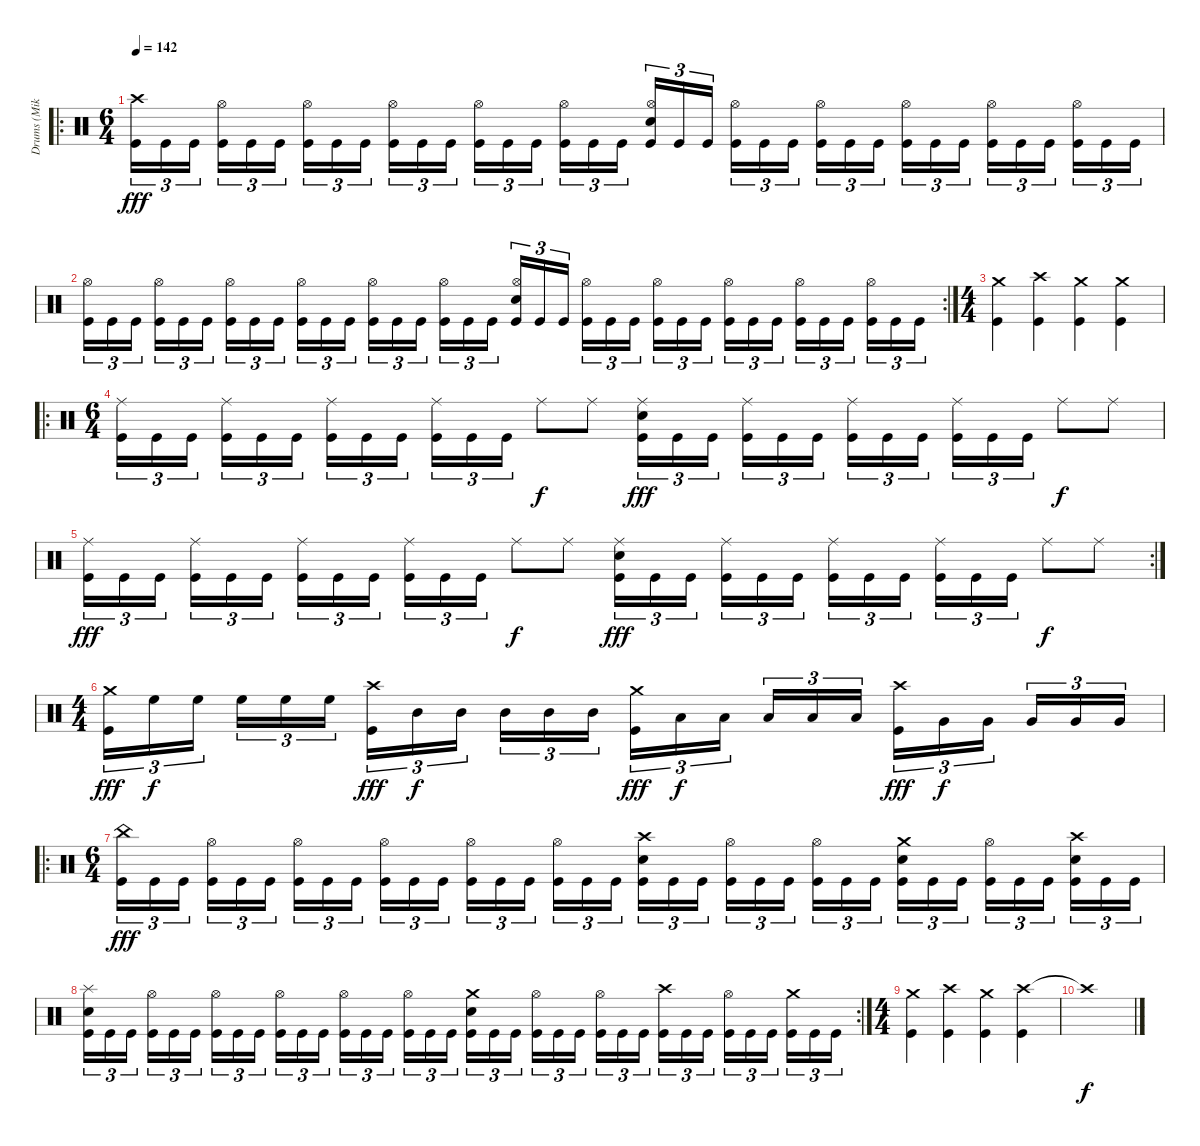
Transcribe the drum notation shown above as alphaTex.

\track ("Drums (Mike)" "Drums (Mik") {instrument percussion}
\staff {score}
\articulation defaults
\ro
\ts (6 4)
\tempo 142
\clef neutral
\ks c
("Crash high (hit)" "Kick (hit)").16{tu (3 2) dy fff} "Kick (hit)".16{tu (3 2)} "Kick (hit)".16{tu (3 2)} ("Hi-Hat (open)" "Kick (hit)").16{tu (3 2)} "Kick (hit)".16{tu (3 2)} "Kick (hit)".16{tu (3 2)} ("Hi-Hat (open)" "Kick (hit)").16{tu (3 2)} "Kick (hit)".16{tu (3 2)} "Kick (hit)".16{tu (3 2)} ("Hi-Hat (open)" "Kick (hit)").16{tu (3 2)} "Kick (hit)".16{tu (3 2)} "Kick (hit)".16{tu (3 2)} ("Hi-Hat (open)" "Kick (hit)").16{tu (3 2)} "Kick (hit)".16{tu (3 2)} "Kick (hit)".16{tu (3 2)} ("Hi-Hat (open)" "Kick (hit)").16{tu (3 2)} "Kick (hit)".16{tu (3 2)} "Kick (hit)".16{tu (3 2)} ("Hi-Hat (open)" "Electric Snare (hit)" "Kick (hit)").16{tu (3 2)} "Kick (hit)".16{tu (3 2)} "Kick (hit)".16{tu (3 2)} ("Hi-Hat (open)" "Kick (hit)").16{tu (3 2)} "Kick (hit)".16{tu (3 2)} "Kick (hit)".16{tu (3 2)} ("Hi-Hat (open)" "Kick (hit)").16{tu (3 2)} "Kick (hit)".16{tu (3 2)} "Kick (hit)".16{tu (3 2)} ("Hi-Hat (open)" "Kick (hit)").16{tu (3 2)} "Kick (hit)".16{tu (3 2)} "Kick (hit)".16{tu (3 2)} ("Hi-Hat (open)" "Kick (hit)").16{tu (3 2)} "Kick (hit)".16{tu (3 2)} "Kick (hit)".16{tu (3 2)} ("Hi-Hat (open)" "Kick (hit)").16{tu (3 2)} "Kick (hit)".16{tu (3 2)} "Kick (hit)".16{tu (3 2)} |
\rc 2
("Hi-Hat (open)" "Kick (hit)").16{tu (3 2)} "Kick (hit)".16{tu (3 2)} "Kick (hit)".16{tu (3 2)} ("Hi-Hat (open)" "Kick (hit)").16{tu (3 2)} "Kick (hit)".16{tu (3 2)} "Kick (hit)".16{tu (3 2)} ("Hi-Hat (open)" "Kick (hit)").16{tu (3 2)} "Kick (hit)".16{tu (3 2)} "Kick (hit)".16{tu (3 2)} ("Hi-Hat (open)" "Kick (hit)").16{tu (3 2)} "Kick (hit)".16{tu (3 2)} "Kick (hit)".16{tu (3 2)} ("Hi-Hat (open)" "Kick (hit)").16{tu (3 2)} "Kick (hit)".16{tu (3 2)} "Kick (hit)".16{tu (3 2)} ("Hi-Hat (open)" "Kick (hit)").16{tu (3 2)} "Kick (hit)".16{tu (3 2)} "Kick (hit)".16{tu (3 2)} ("Hi-Hat (open)" "Electric Snare (hit)" "Kick (hit)").16{tu (3 2)} "Kick (hit)".16{tu (3 2)} "Kick (hit)".16{tu (3 2)} ("Hi-Hat (open)" "Kick (hit)").16{tu (3 2)} "Kick (hit)".16{tu (3 2)} "Kick (hit)".16{tu (3 2)} ("Hi-Hat (open)" "Kick (hit)").16{tu (3 2)} "Kick (hit)".16{tu (3 2)} "Kick (hit)".16{tu (3 2)} ("Hi-Hat (open)" "Kick (hit)").16{tu (3 2)} "Kick (hit)".16{tu (3 2)} "Kick (hit)".16{tu (3 2)} ("Hi-Hat (open)" "Kick (hit)").16{tu (3 2)} "Kick (hit)".16{tu (3 2)} "Kick (hit)".16{tu (3 2)} ("Hi-Hat (open)" "Kick (hit)").16{tu (3 2)} "Kick (hit)".16{tu (3 2)} "Kick (hit)".16{tu (3 2)} |
\ts (4 4)
("Crash medium (hit)" "Kick (hit)").4 ("Crash high (hit)" "Kick (hit)").4 ("Crash medium (hit)" "Kick (hit)").4 ("Crash medium (hit)" "Kick (hit)").4 |
\ro
\ts (6 4)
("Ride (middle)" "Kick (hit)").16{tu (3 2)} "Kick (hit)".16{tu (3 2)} "Kick (hit)".16{tu (3 2)} ("Ride (middle)" "Kick (hit)").16{tu (3 2)} "Kick (hit)".16{tu (3 2)} "Kick (hit)".16{tu (3 2)} ("Ride (middle)" "Kick (hit)").16{tu (3 2)} "Kick (hit)".16{tu (3 2)} "Kick (hit)".16{tu (3 2)} ("Ride (middle)" "Kick (hit)").16{tu (3 2)} "Kick (hit)".16{tu (3 2)} "Kick (hit)".16{tu (3 2)} "Ride (middle)".8{dy f} "Ride (middle)".8 ("Ride (middle)" "Electric Snare (hit)" "Kick (hit)").16{tu (3 2) dy fff} "Kick (hit)".16{tu (3 2)} "Kick (hit)".16{tu (3 2)} ("Ride (middle)" "Kick (hit)").16{tu (3 2)} "Kick (hit)".16{tu (3 2)} "Kick (hit)".16{tu (3 2)} ("Ride (middle)" "Kick (hit)").16{tu (3 2)} "Kick (hit)".16{tu (3 2)} "Kick (hit)".16{tu (3 2)} ("Ride (middle)" "Kick (hit)").16{tu (3 2)} "Kick (hit)".16{tu (3 2)} "Kick (hit)".16{tu (3 2)} "Ride (middle)".8{dy f} "Ride (middle)".8 |
\rc 2
("Ride (middle)" "Kick (hit)").16{tu (3 2) dy fff} "Kick (hit)".16{tu (3 2)} "Kick (hit)".16{tu (3 2)} ("Ride (middle)" "Kick (hit)").16{tu (3 2)} "Kick (hit)".16{tu (3 2)} "Kick (hit)".16{tu (3 2)} ("Ride (middle)" "Kick (hit)").16{tu (3 2)} "Kick (hit)".16{tu (3 2)} "Kick (hit)".16{tu (3 2)} ("Ride (middle)" "Kick (hit)").16{tu (3 2)} "Kick (hit)".16{tu (3 2)} "Kick (hit)".16{tu (3 2)} "Ride (middle)".8{dy f} "Ride (middle)".8 ("Ride (middle)" "Electric Snare (hit)" "Kick (hit)").16{tu (3 2) dy fff} "Kick (hit)".16{tu (3 2)} "Kick (hit)".16{tu (3 2)} ("Ride (middle)" "Kick (hit)").16{tu (3 2)} "Kick (hit)".16{tu (3 2)} "Kick (hit)".16{tu (3 2)} ("Ride (middle)" "Kick (hit)").16{tu (3 2)} "Kick (hit)".16{tu (3 2)} "Kick (hit)".16{tu (3 2)} ("Ride (middle)" "Kick (hit)").16{tu (3 2)} "Kick (hit)".16{tu (3 2)} "Kick (hit)".16{tu (3 2)} "Ride (middle)".8{dy f} "Ride (middle)".8 |
\ts (4 4)
("Crash medium (hit)" "Kick (hit)").16{tu (3 2) dy fff} "High Floor Tom (hit)".16{tu (3 2) dy f} "High Floor Tom (hit)".16{tu (3 2)} "High Floor Tom (hit)".16{tu (3 2)} "High Floor Tom (hit)".16{tu (3 2)} "High Floor Tom (hit)".16{tu (3 2)} ("Crash high (hit)" "Kick (hit)").16{tu (3 2) dy fff} "Mid Tom (hit)".16{tu (3 2) dy f} "Mid Tom (hit)".16{tu (3 2)} "Mid Tom (hit)".16{tu (3 2)} "Mid Tom (hit)".16{tu (3 2)} "Mid Tom (hit)".16{tu (3 2)} ("Crash medium (hit)" "Kick (hit)").16{tu (3 2) dy fff} "Low Tom (hit)".16{tu (3 2) dy f} "Low Tom (hit)".16{tu (3 2)} "Low Tom (hit)".16{tu (3 2)} "Low Tom (hit)".16{tu (3 2)} "Low Tom (hit)".16{tu (3 2)} ("Crash high (hit)" "Kick (hit)").16{tu (3 2) dy fff} "Very Low Tom (hit)".16{tu (3 2) dy f} "Very Low Tom (hit)".16{tu (3 2)} "Very Low Tom (hit)".16{tu (3 2)} "Very Low Tom (hit)".16{tu (3 2)} "Very Low Tom (hit)".16{tu (3 2)} |
\ro
\ts (6 4)
("China (hit)" "Kick (hit)").16{tu (3 2) dy fff} "Kick (hit)".16{tu (3 2)} "Kick (hit)".16{tu (3 2)} ("Hi-Hat (open)" "Kick (hit)").16{tu (3 2)} "Kick (hit)".16{tu (3 2)} "Kick (hit)".16{tu (3 2)} ("Hi-Hat (open)" "Kick (hit)").16{tu (3 2)} "Kick (hit)".16{tu (3 2)} "Kick (hit)".16{tu (3 2)} ("Hi-Hat (open)" "Kick (hit)").16{tu (3 2)} "Kick (hit)".16{tu (3 2)} "Kick (hit)".16{tu (3 2)} ("Hi-Hat (open)" "Kick (hit)").16{tu (3 2)} "Kick (hit)".16{tu (3 2)} "Kick (hit)".16{tu (3 2)} ("Hi-Hat (open)" "Kick (hit)").16{tu (3 2)} "Kick (hit)".16{tu (3 2)} "Kick (hit)".16{tu (3 2)} ("Crash high (hit)" "Electric Snare (hit)" "Kick (hit)").16{tu (3 2)} "Kick (hit)".16{tu (3 2)} "Kick (hit)".16{tu (3 2)} ("Hi-Hat (open)" "Kick (hit)").16{tu (3 2)} "Kick (hit)".16{tu (3 2)} "Kick (hit)".16{tu (3 2)} ("Hi-Hat (open)" "Kick (hit)").16{tu (3 2)} "Kick (hit)".16{tu (3 2)} "Kick (hit)".16{tu (3 2)} ("Crash medium (hit)" "Electric Snare (hit)" "Kick (hit)").16{tu (3 2)} "Kick (hit)".16{tu (3 2)} "Kick (hit)".16{tu (3 2)} ("Hi-Hat (open)" "Kick (hit)").16{tu (3 2)} "Kick (hit)".16{tu (3 2)} "Kick (hit)".16{tu (3 2)} ("Crash high (hit)" "Electric Snare (hit)" "Kick (hit)").16{tu (3 2)} "Kick (hit)".16{tu (3 2)} "Kick (hit)".16{tu (3 2)} |
\rc 2
("Splash (hit)" "Electric Snare (hit)" "Kick (hit)").16{tu (3 2)} "Kick (hit)".16{tu (3 2)} "Kick (hit)".16{tu (3 2)} ("Hi-Hat (open)" "Kick (hit)").16{tu (3 2)} "Kick (hit)".16{tu (3 2)} "Kick (hit)".16{tu (3 2)} ("Hi-Hat (open)" "Kick (hit)").16{tu (3 2)} "Kick (hit)".16{tu (3 2)} "Kick (hit)".16{tu (3 2)} ("Hi-Hat (open)" "Kick (hit)").16{tu (3 2)} "Kick (hit)".16{tu (3 2)} "Kick (hit)".16{tu (3 2)} ("Hi-Hat (open)" "Kick (hit)").16{tu (3 2)} "Kick (hit)".16{tu (3 2)} "Kick (hit)".16{tu (3 2)} ("Hi-Hat (open)" "Kick (hit)").16{tu (3 2)} "Kick (hit)".16{tu (3 2)} "Kick (hit)".16{tu (3 2)} ("Crash medium (hit)" "Electric Snare (hit)" "Kick (hit)").16{tu (3 2)} "Kick (hit)".16{tu (3 2)} "Kick (hit)".16{tu (3 2)} ("Hi-Hat (open)" "Kick (hit)").16{tu (3 2)} "Kick (hit)".16{tu (3 2)} "Kick (hit)".16{tu (3 2)} ("Hi-Hat (open)" "Kick (hit)").16{tu (3 2)} "Kick (hit)".16{tu (3 2)} "Kick (hit)".16{tu (3 2)} ("Crash high (hit)" "Kick (hit)").16{tu (3 2)} "Kick (hit)".16{tu (3 2)} "Kick (hit)".16{tu (3 2)} ("Hi-Hat (open)" "Kick (hit)").16{tu (3 2)} "Kick (hit)".16{tu (3 2)} "Kick (hit)".16{tu (3 2)} ("Crash medium (hit)" "Kick (hit)").16{tu (3 2)} "Kick (hit)".16{tu (3 2)} "Kick (hit)".16{tu (3 2)} |
\ts (4 4)
("Crash medium (hit)" "Kick (hit)").4 ("Crash high (hit)" "Kick (hit)").4 ("Crash medium (hit)" "Kick (hit)").4 ("Crash high (hit)" "Kick (hit)").4 |
"Crash high (hit)"{t}.1{dy f}
